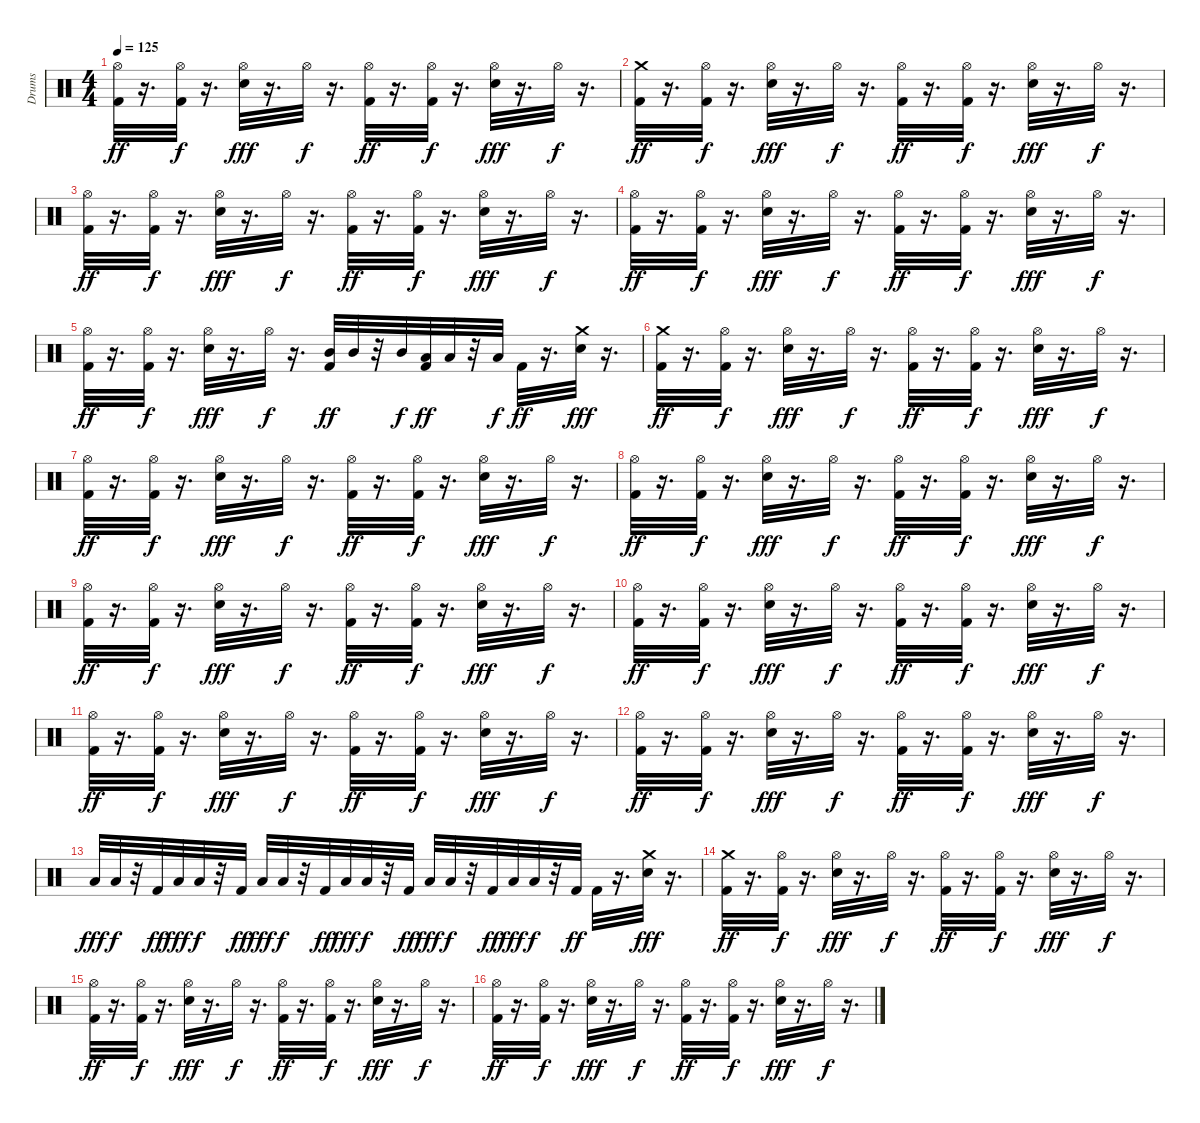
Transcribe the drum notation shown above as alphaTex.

\track ("Drums" "Drums") {instrument percussion}
\staff {score}
\articulation defaults
\ts (4 4)
\tempo 125
\clef neutral
\ks c
("Kick (hit) 2" "Hi-Hat (open)").32{dy ff} r.16{d} ("Kick (hit) 2" "Hi-Hat (open)").32{dy f} r.16{d} ("Snare (hit) 2" "Hi-Hat (open)").32{dy fff} r.16{d} "Hi-Hat (open)".32{dy f} r.16{d} ("Kick (hit) 2" "Hi-Hat (open)").32{dy ff} r.16{d} ("Kick (hit) 2" "Hi-Hat (open)").32{dy f} r.16{d} ("Snare (hit) 2" "Hi-Hat (open)").32{dy fff} r.16{d} "Hi-Hat (open)".32{dy f} r.16{d} |
("Crash medium (hit)" "Kick (hit) 2").32{dy ff} r.16{d} ("Kick (hit) 2" "Hi-Hat (open)").32{dy f} r.16{d} ("Snare (hit) 2" "Hi-Hat (open)").32{dy fff} r.16{d} "Hi-Hat (open)".32{dy f} r.16{d} ("Kick (hit) 2" "Hi-Hat (open)").32{dy ff} r.16{d} ("Kick (hit) 2" "Hi-Hat (open)").32{dy f} r.16{d} ("Snare (hit) 2" "Hi-Hat (open)").32{dy fff} r.16{d} "Hi-Hat (open)".32{dy f} r.16{d} |
("Kick (hit) 2" "Hi-Hat (open)").32{dy ff} r.16{d} ("Kick (hit) 2" "Hi-Hat (open)").32{dy f} r.16{d} ("Snare (hit) 2" "Hi-Hat (open)").32{dy fff} r.16{d} "Hi-Hat (open)".32{dy f} r.16{d} ("Kick (hit) 2" "Hi-Hat (open)").32{dy ff} r.16{d} ("Kick (hit) 2" "Hi-Hat (open)").32{dy f} r.16{d} ("Snare (hit) 2" "Hi-Hat (open)").32{dy fff} r.16{d} "Hi-Hat (open)".32{dy f} r.16{d} |
("Kick (hit) 2" "Hi-Hat (open)").32{dy ff} r.16{d} ("Kick (hit) 2" "Hi-Hat (open)").32{dy f} r.16{d} ("Snare (hit) 2" "Hi-Hat (open)").32{dy fff} r.16{d} "Hi-Hat (open)".32{dy f} r.16{d} ("Kick (hit) 2" "Hi-Hat (open)").32{dy ff} r.16{d} ("Kick (hit) 2" "Hi-Hat (open)").32{dy f} r.16{d} ("Snare (hit) 2" "Hi-Hat (open)").32{dy fff} r.16{d} "Hi-Hat (open)".32{dy f} r.16{d} |
("Kick (hit) 2" "Hi-Hat (open)").32{dy ff} r.16{d} ("Kick (hit) 2" "Hi-Hat (open)").32{dy f} r.16{d} ("Snare (hit) 2" "Hi-Hat (open)").32{dy fff} r.16{d} "Hi-Hat (open)".32{dy f} r.16{d} ("Mid Tom (hit)" "Kick (hit) 2").32{dy ff} "Mid Tom (hit)".32 r.32 "Mid Tom (hit)".32{dy f} ("Low Tom (hit)" "Kick (hit) 2").32{dy ff} "Low Tom (hit)".32 r.32 "Low Tom (hit)".32{dy f} "Kick (hit) 2".32{dy ff} r.16{d} ("Snare (hit) 2" "Crash medium (hit)").32{dy fff} r.16{d} |
("Crash medium (hit)" "Kick (hit) 2").32{dy ff} r.16{d} ("Kick (hit) 2" "Hi-Hat (open)").32{dy f} r.16{d} ("Snare (hit) 2" "Hi-Hat (open)").32{dy fff} r.16{d} "Hi-Hat (open)".32{dy f} r.16{d} ("Kick (hit) 2" "Hi-Hat (open)").32{dy ff} r.16{d} ("Kick (hit) 2" "Hi-Hat (open)").32{dy f} r.16{d} ("Snare (hit) 2" "Hi-Hat (open)").32{dy fff} r.16{d} "Hi-Hat (open)".32{dy f} r.16{d} |
("Kick (hit) 2" "Hi-Hat (open)").32{dy ff} r.16{d} ("Kick (hit) 2" "Hi-Hat (open)").32{dy f} r.16{d} ("Snare (hit) 2" "Hi-Hat (open)").32{dy fff} r.16{d} "Hi-Hat (open)".32{dy f} r.16{d} ("Kick (hit) 2" "Hi-Hat (open)").32{dy ff} r.16{d} ("Kick (hit) 2" "Hi-Hat (open)").32{dy f} r.16{d} ("Snare (hit) 2" "Hi-Hat (open)").32{dy fff} r.16{d} "Hi-Hat (open)".32{dy f} r.16{d} |
("Kick (hit) 2" "Hi-Hat (open)").32{dy ff} r.16{d} ("Kick (hit) 2" "Hi-Hat (open)").32{dy f} r.16{d} ("Snare (hit) 2" "Hi-Hat (open)").32{dy fff} r.16{d} "Hi-Hat (open)".32{dy f} r.16{d} ("Kick (hit) 2" "Hi-Hat (open)").32{dy ff} r.16{d} ("Kick (hit) 2" "Hi-Hat (open)").32{dy f} r.16{d} ("Snare (hit) 2" "Hi-Hat (open)").32{dy fff} r.16{d} "Hi-Hat (open)".32{dy f} r.16{d} |
("Kick (hit) 2" "Hi-Hat (open)").32{dy ff} r.16{d} ("Kick (hit) 2" "Hi-Hat (open)").32{dy f} r.16{d} ("Snare (hit) 2" "Hi-Hat (open)").32{dy fff} r.16{d} "Hi-Hat (open)".32{dy f} r.16{d} ("Kick (hit) 2" "Hi-Hat (open)").32{dy ff} r.16{d} ("Kick (hit) 2" "Hi-Hat (open)").32{dy f} r.16{d} ("Snare (hit) 2" "Hi-Hat (open)").32{dy fff} r.16{d} "Hi-Hat (open)".32{dy f} r.16{d} |
("Kick (hit) 2" "Hi-Hat (open)").32{dy ff} r.16{d} ("Kick (hit) 2" "Hi-Hat (open)").32{dy f} r.16{d} ("Snare (hit) 2" "Hi-Hat (open)").32{dy fff} r.16{d} "Hi-Hat (open)".32{dy f} r.16{d} ("Kick (hit) 2" "Hi-Hat (open)").32{dy ff} r.16{d} ("Kick (hit) 2" "Hi-Hat (open)").32{dy f} r.16{d} ("Snare (hit) 2" "Hi-Hat (open)").32{dy fff} r.16{d} "Hi-Hat (open)".32{dy f} r.16{d} |
("Kick (hit) 2" "Hi-Hat (open)").32{dy ff} r.16{d} ("Kick (hit) 2" "Hi-Hat (open)").32{dy f} r.16{d} ("Snare (hit) 2" "Hi-Hat (open)").32{dy fff} r.16{d} "Hi-Hat (open)".32{dy f} r.16{d} ("Kick (hit) 2" "Hi-Hat (open)").32{dy ff} r.16{d} ("Kick (hit) 2" "Hi-Hat (open)").32{dy f} r.16{d} ("Snare (hit) 2" "Hi-Hat (open)").32{dy fff} r.16{d} "Hi-Hat (open)".32{dy f} r.16{d} |
("Kick (hit) 2" "Hi-Hat (open)").32{dy ff} r.16{d} ("Kick (hit) 2" "Hi-Hat (open)").32{dy f} r.16{d} ("Snare (hit) 2" "Hi-Hat (open)").32{dy fff} r.16{d} "Hi-Hat (open)".32{dy f} r.16{d} ("Kick (hit) 2" "Hi-Hat (open)").32{dy ff} r.16{d} ("Kick (hit) 2" "Hi-Hat (open)").32{dy f} r.16{d} ("Snare (hit) 2" "Hi-Hat (open)").32{dy fff} r.16{d} "Hi-Hat (open)".32{dy f} r.16{d} |
"Low Tom (hit)".32{dy fff} "Low Floor Tom (hit)".32{dy f} r.32 "Kick (hit) 2".32{dy ff} "Low Tom (hit)".32{dy fff} "Low Floor Tom (hit)".32{dy f} r.32 "Kick (hit) 2".32{dy ff} "Low Tom (hit)".32{dy fff} "Low Floor Tom (hit)".32{dy f} r.32 "Kick (hit) 2".32{dy ff} "Low Tom (hit)".32{dy fff} "Low Floor Tom (hit)".32{dy f} r.32 "Kick (hit) 2".32{dy ff} "Low Tom (hit)".32{dy fff} "Low Floor Tom (hit)".32{dy f} r.32 "Kick (hit) 2".32{dy ff} "Low Tom (hit)".32{dy fff} "Low Floor Tom (hit)".32{dy f} r.32 "Kick (hit) 2".32{dy ff} "Kick (hit) 2".32 r.16{d} ("Crash medium (hit)" "Snare (hit) 2").32{dy fff} r.16{d} |
("Crash medium (hit)" "Kick (hit) 2").32{dy ff} r.16{d} ("Kick (hit) 2" "Hi-Hat (open)").32{dy f} r.16{d} ("Snare (hit) 2" "Hi-Hat (open)").32{dy fff} r.16{d} "Hi-Hat (open)".32{dy f} r.16{d} ("Kick (hit) 2" "Hi-Hat (open)").32{dy ff} r.16{d} ("Kick (hit) 2" "Hi-Hat (open)").32{dy f} r.16{d} ("Snare (hit) 2" "Hi-Hat (open)").32{dy fff} r.16{d} "Hi-Hat (open)".32{dy f} r.16{d} |
("Kick (hit) 2" "Hi-Hat (open)").32{dy ff} r.16{d} ("Kick (hit) 2" "Hi-Hat (open)").32{dy f} r.16{d} ("Snare (hit) 2" "Hi-Hat (open)").32{dy fff} r.16{d} "Hi-Hat (open)".32{dy f} r.16{d} ("Kick (hit) 2" "Hi-Hat (open)").32{dy ff} r.16{d} ("Kick (hit) 2" "Hi-Hat (open)").32{dy f} r.16{d} ("Snare (hit) 2" "Hi-Hat (open)").32{dy fff} r.16{d} "Hi-Hat (open)".32{dy f} r.16{d} |
("Kick (hit) 2" "Hi-Hat (open)").32{dy ff} r.16{d} ("Kick (hit) 2" "Hi-Hat (open)").32{dy f} r.16{d} ("Snare (hit) 2" "Hi-Hat (open)").32{dy fff} r.16{d} "Hi-Hat (open)".32{dy f} r.16{d} ("Kick (hit) 2" "Hi-Hat (open)").32{dy ff} r.16{d} ("Kick (hit) 2" "Hi-Hat (open)").32{dy f} r.16{d} ("Snare (hit) 2" "Hi-Hat (open)").32{dy fff} r.16{d} "Hi-Hat (open)".32{dy f} r.16{d}
